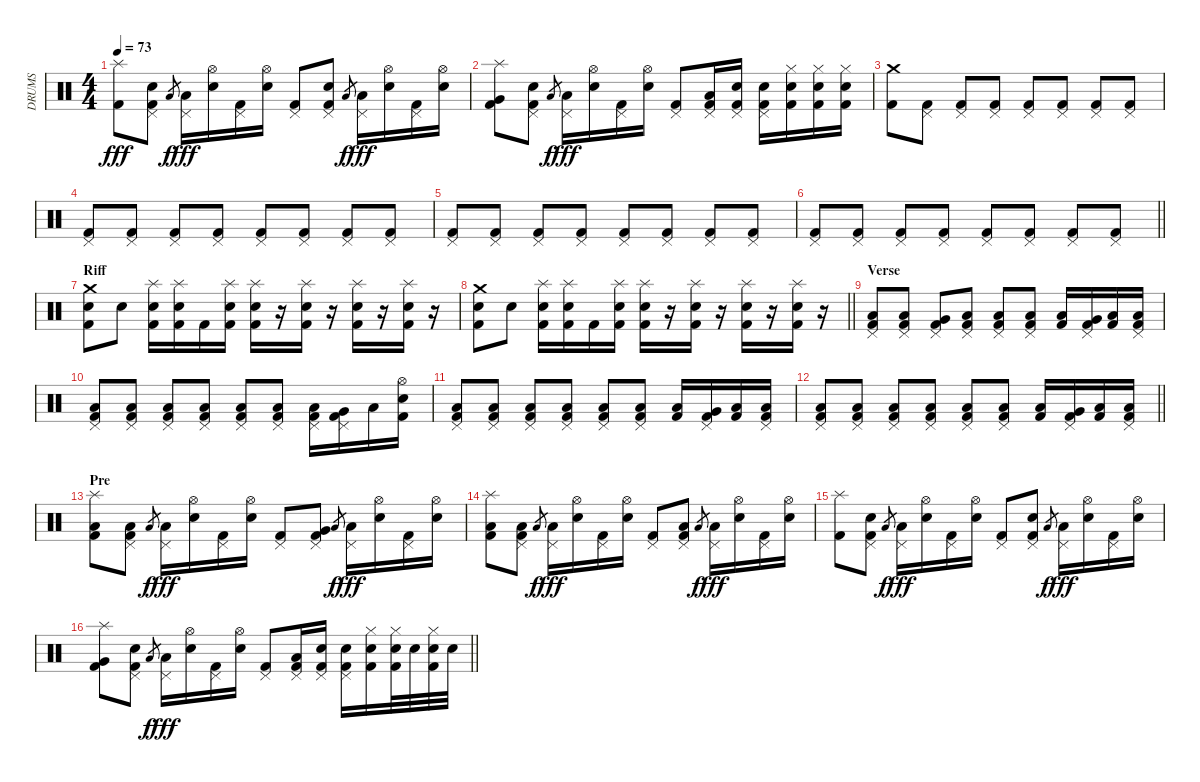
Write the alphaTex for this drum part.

\track ("DRUMS" "DRUMS") {instrument percussion}
\staff {score}
\articulation defaults
\ts (4 4)
\tempo 73
\clef neutral
\ks c
("Splash (hit)" "Kick (hit) 2").8{dy fff} ("Pedal Hi-Hat (hit)" "Electric Snare (hit)" "Kick (hit) 2").8 "Low Tom (hit)".8{gr dy f} ("Pedal Hi-Hat (hit)" "Low Tom (hit)").16{dy fff} ("Hi-Hat (open)" "Electric Snare (hit)").16 ("Pedal Hi-Hat (hit)" "Kick (hit) 2").16 ("Hi-Hat (open)" "Electric Snare (hit)").16 ("Pedal Hi-Hat (hit)" "Kick (hit) 2").8 ("Pedal Hi-Hat (hit)" "Electric Snare (hit)" "Kick (hit) 2").8 "Low Tom (hit)".8{gr dy f} ("Pedal Hi-Hat (hit)" "Low Tom (hit)").16{dy fff} ("Hi-Hat (open)" "Electric Snare (hit)").16 ("Pedal Hi-Hat (hit)" "Kick (hit) 2").16 ("Hi-Hat (open)" "Electric Snare (hit)").16 |
("Splash (hit)" "Very Low Tom (hit)" "Kick (hit) 2").8 ("Pedal Hi-Hat (hit)" "Electric Snare (hit)" "Kick (hit) 2").8 "Low Tom (hit)".8{gr dy f} ("Pedal Hi-Hat (hit)" "Low Tom (hit)").16{dy fff} ("Hi-Hat (open)" "Electric Snare (hit)").16 ("Pedal Hi-Hat (hit)" "Kick (hit) 2").16 ("Hi-Hat (open)" "Electric Snare (hit)").16 ("Pedal Hi-Hat (hit)" "Kick (hit) 2").8 ("Pedal Hi-Hat (hit)" "Low Floor Tom (hit)" "Kick (hit) 2").16 ("Pedal Hi-Hat (hit)" "Electric Snare (hit)" "Kick (hit) 2").16 ("Pedal Hi-Hat (hit)" "Electric Snare (hit)" "Kick (hit) 2").16 ("Hi-Hat (closed)" "Electric Snare (hit)" "Kick (hit) 2").16 ("Hi-Hat (closed)" "Electric Snare (hit)" "Kick (hit) 2").16 ("Hi-Hat (closed)" "Electric Snare (hit)" "Kick (hit) 2").16 |
("Crash medium (hit)" "Kick (hit) 2").8 ("Pedal Hi-Hat (hit)" "Kick (hit) 2").8 ("Pedal Hi-Hat (hit)" "Kick (hit) 2").8 ("Pedal Hi-Hat (hit)" "Kick (hit) 2").8 ("Pedal Hi-Hat (hit)" "Kick (hit) 2").8 ("Pedal Hi-Hat (hit)" "Kick (hit) 2").8 ("Pedal Hi-Hat (hit)" "Kick (hit) 2").8 ("Pedal Hi-Hat (hit)" "Kick (hit) 2").8 |
("Pedal Hi-Hat (hit)" "Kick (hit) 2").8 ("Pedal Hi-Hat (hit)" "Kick (hit) 2").8 ("Pedal Hi-Hat (hit)" "Kick (hit) 2").8 ("Pedal Hi-Hat (hit)" "Kick (hit) 2").8 ("Pedal Hi-Hat (hit)" "Kick (hit) 2").8 ("Pedal Hi-Hat (hit)" "Kick (hit) 2").8 ("Pedal Hi-Hat (hit)" "Kick (hit) 2").8 ("Pedal Hi-Hat (hit)" "Kick (hit) 2").8 |
("Pedal Hi-Hat (hit)" "Kick (hit) 2").8 ("Pedal Hi-Hat (hit)" "Kick (hit) 2").8 ("Pedal Hi-Hat (hit)" "Kick (hit) 2").8 ("Pedal Hi-Hat (hit)" "Kick (hit) 2").8 ("Pedal Hi-Hat (hit)" "Kick (hit) 2").8 ("Pedal Hi-Hat (hit)" "Kick (hit) 2").8 ("Pedal Hi-Hat (hit)" "Kick (hit) 2").8 ("Pedal Hi-Hat (hit)" "Kick (hit) 2").8 |
\barLineRight lightlight
("Pedal Hi-Hat (hit)" "Kick (hit) 2").8 ("Pedal Hi-Hat (hit)" "Kick (hit) 2").8 ("Pedal Hi-Hat (hit)" "Kick (hit) 2").8 ("Pedal Hi-Hat (hit)" "Kick (hit) 2").8 ("Pedal Hi-Hat (hit)" "Kick (hit) 2").8 ("Pedal Hi-Hat (hit)" "Kick (hit) 2").8 ("Pedal Hi-Hat (hit)" "Kick (hit) 2").8 ("Pedal Hi-Hat (hit)" "Kick (hit) 2").8 |
\section ("" "Riff")
("Crash medium (hit)" "Electric Snare (hit)" "Kick (hit) 2").8 "Electric Snare (hit)".8 ("Splash (hit)" "Electric Snare (hit)" "Kick (hit) 2").16 ("Splash (hit)" "Electric Snare (hit)" "Kick (hit) 2").16 "Kick (hit) 2".16 ("Splash (hit)" "Electric Snare (hit)" "Kick (hit) 2").16 ("Splash (hit)" "Electric Snare (hit)" "Kick (hit) 2").16 r.16 ("Splash (hit)" "Electric Snare (hit)" "Kick (hit) 2").16 r.16 ("Splash (hit)" "Electric Snare (hit)" "Kick (hit) 2").16 r.16 ("Splash (hit)" "Electric Snare (hit)" "Kick (hit) 2").16 r.16 |
\barLineRight lightlight
("Crash medium (hit)" "Electric Snare (hit)" "Kick (hit) 2").8 "Electric Snare (hit)".8 ("Splash (hit)" "Electric Snare (hit)" "Kick (hit) 2").16 ("Splash (hit)" "Electric Snare (hit)" "Kick (hit) 2").16 "Kick (hit) 2".16 ("Splash (hit)" "Electric Snare (hit)" "Kick (hit) 2").16 ("Splash (hit)" "Electric Snare (hit)" "Kick (hit) 2").16 r.16 ("Splash (hit)" "Electric Snare (hit)" "Kick (hit) 2").16 r.16 ("Splash (hit)" "Electric Snare (hit)" "Kick (hit) 2").16 r.16 ("Splash (hit)" "Electric Snare (hit)" "Kick (hit) 2").16 r.16 |
\section ("" "Verse")
("Pedal Hi-Hat (hit)" "Low Floor Tom (hit)" "Kick (hit) 2").8 ("Pedal Hi-Hat (hit)" "Low Floor Tom (hit)" "Kick (hit) 2").8 ("Pedal Hi-Hat (hit)" "Very Low Tom (hit)" "Kick (hit) 2").8 ("Pedal Hi-Hat (hit)" "Low Floor Tom (hit)" "Kick (hit) 2").8 ("Pedal Hi-Hat (hit)" "Low Floor Tom (hit)" "Kick (hit) 2").8 ("Pedal Hi-Hat (hit)" "Low Floor Tom (hit)" "Kick (hit) 2").8 ("Low Floor Tom (hit)" "Kick (hit) 2").16 ("Pedal Hi-Hat (hit)" "Very Low Tom (hit)" "Kick (hit) 2").16 ("Low Tom (hit)" "Kick (hit) 2").16 ("Pedal Hi-Hat (hit)" "Low Floor Tom (hit)" "Kick (hit) 2").16 |
("Pedal Hi-Hat (hit)" "Low Floor Tom (hit)" "Kick (hit) 2").8 ("Pedal Hi-Hat (hit)" "Low Floor Tom (hit)" "Kick (hit) 2").8 ("Pedal Hi-Hat (hit)" "Low Floor Tom (hit)" "Kick (hit) 2").8 ("Pedal Hi-Hat (hit)" "Low Floor Tom (hit)" "Kick (hit) 2").8 ("Pedal Hi-Hat (hit)" "Low Floor Tom (hit)" "Kick (hit) 2").8 ("Pedal Hi-Hat (hit)" "Low Floor Tom (hit)" "Kick (hit) 2").8 ("Pedal Hi-Hat (hit)" "Low Floor Tom (hit)" "Kick (hit) 2").16 ("Pedal Hi-Hat (hit)" "Very Low Tom (hit)" "Kick (hit) 2").16 "Low Tom (hit)".16 ("Hi-Hat (open)" "Electric Snare (hit)" "Kick (hit) 2").16 |
("Pedal Hi-Hat (hit)" "Low Floor Tom (hit)" "Kick (hit) 2").8 ("Pedal Hi-Hat (hit)" "Low Floor Tom (hit)" "Kick (hit) 2").8 ("Pedal Hi-Hat (hit)" "Low Floor Tom (hit)" "Kick (hit) 2").8 ("Pedal Hi-Hat (hit)" "Low Floor Tom (hit)" "Kick (hit) 2").8 ("Pedal Hi-Hat (hit)" "Low Floor Tom (hit)" "Kick (hit) 2").8 ("Pedal Hi-Hat (hit)" "Low Floor Tom (hit)" "Kick (hit) 2").8 ("Low Floor Tom (hit)" "Kick (hit) 2").16 ("Pedal Hi-Hat (hit)" "Very Low Tom (hit)" "Kick (hit) 2").16 ("Low Tom (hit)" "Kick (hit) 2").16 ("Pedal Hi-Hat (hit)" "Low Floor Tom (hit)" "Kick (hit) 2").16 |
\barLineRight lightlight
("Pedal Hi-Hat (hit)" "Low Floor Tom (hit)" "Kick (hit) 2").8 ("Pedal Hi-Hat (hit)" "Low Floor Tom (hit)" "Kick (hit) 2").8 ("Pedal Hi-Hat (hit)" "Low Floor Tom (hit)" "Kick (hit) 2").8 ("Pedal Hi-Hat (hit)" "Low Floor Tom (hit)" "Kick (hit) 2").8 ("Pedal Hi-Hat (hit)" "Low Floor Tom (hit)" "Kick (hit) 2").8 ("Pedal Hi-Hat (hit)" "Low Floor Tom (hit)" "Kick (hit) 2").8 ("Low Floor Tom (hit)" "Kick (hit) 2").16 ("Pedal Hi-Hat (hit)" "Very Low Tom (hit)" "Kick (hit) 2").16 ("Low Tom (hit)" "Kick (hit) 2").16 ("Pedal Hi-Hat (hit)" "Low Floor Tom (hit)" "Kick (hit) 2").16 |
\section ("" "Pre")
("Splash (hit)" "Low Tom (hit)" "Kick (hit) 2").8 ("Pedal Hi-Hat (hit)" "Low Tom (hit)" "Kick (hit) 2").8 "Low Tom (hit)".8{gr dy f} ("Pedal Hi-Hat (hit)" "Low Tom (hit)").16{dy fff} ("Hi-Hat (open)" "Electric Snare (hit)").16 ("Pedal Hi-Hat (hit)" "Kick (hit) 2").16 ("Hi-Hat (open)" "Electric Snare (hit)").16 ("Pedal Hi-Hat (hit)" "Kick (hit) 2").8 ("Pedal Hi-Hat (hit)" "Very Low Tom (hit)" "Kick (hit) 2").8 "Low Tom (hit)".8{gr dy f} ("Pedal Hi-Hat (hit)" "Low Tom (hit)").16{dy fff} ("Hi-Hat (open)" "Electric Snare (hit)").16 ("Pedal Hi-Hat (hit)" "Kick (hit) 2").16 ("Hi-Hat (open)" "Electric Snare (hit)").16 |
("Splash (hit)" "Low Tom (hit)" "Kick (hit) 2").8 ("Pedal Hi-Hat (hit)" "Low Tom (hit)" "Kick (hit) 2").8 "Low Tom (hit)".8{gr dy f} ("Pedal Hi-Hat (hit)" "Low Tom (hit)").16{dy fff} ("Hi-Hat (open)" "Electric Snare (hit)").16 ("Pedal Hi-Hat (hit)" "Kick (hit) 2").16 ("Hi-Hat (open)" "Electric Snare (hit)").16 ("Pedal Hi-Hat (hit)" "Kick (hit) 2").8 ("Pedal Hi-Hat (hit)" "Low Floor Tom (hit)" "Kick (hit) 2").8 "Low Tom (hit)".8{gr dy f} ("Pedal Hi-Hat (hit)" "Low Tom (hit)").16{dy fff} ("Hi-Hat (open)" "Electric Snare (hit)").16 ("Pedal Hi-Hat (hit)" "Kick (hit) 2").16 ("Hi-Hat (open)" "Electric Snare (hit)").16 |
("Splash (hit)" "Kick (hit) 2").8 ("Pedal Hi-Hat (hit)" "Electric Snare (hit)" "Kick (hit) 2").8 "Low Tom (hit)".8{gr dy f} ("Pedal Hi-Hat (hit)" "Low Tom (hit)").16{dy fff} ("Hi-Hat (open)" "Electric Snare (hit)").16 ("Pedal Hi-Hat (hit)" "Kick (hit) 2").16 ("Hi-Hat (open)" "Electric Snare (hit)").16 ("Pedal Hi-Hat (hit)" "Kick (hit) 2").8 ("Pedal Hi-Hat (hit)" "Electric Snare (hit)" "Kick (hit) 2").8 "Low Tom (hit)".8{gr dy f} ("Pedal Hi-Hat (hit)" "Low Tom (hit)").16{dy fff} ("Hi-Hat (open)" "Electric Snare (hit)").16 ("Pedal Hi-Hat (hit)" "Kick (hit) 2").16 ("Hi-Hat (open)" "Electric Snare (hit)").16 |
\barLineRight lightlight
("Splash (hit)" "Very Low Tom (hit)" "Kick (hit) 2").8 ("Pedal Hi-Hat (hit)" "Electric Snare (hit)" "Kick (hit) 2").8 "Low Tom (hit)".8{gr dy f} ("Pedal Hi-Hat (hit)" "Low Tom (hit)").16{dy fff} ("Hi-Hat (open)" "Electric Snare (hit)").16 ("Pedal Hi-Hat (hit)" "Kick (hit) 2").16 ("Hi-Hat (open)" "Electric Snare (hit)").16 ("Pedal Hi-Hat (hit)" "Kick (hit) 2").8 ("Pedal Hi-Hat (hit)" "Low Floor Tom (hit)" "Kick (hit) 2").16 ("Pedal Hi-Hat (hit)" "Electric Snare (hit)" "Kick (hit) 2").16 ("Pedal Hi-Hat (hit)" "Electric Snare (hit)" "Kick (hit) 2").16 ("Hi-Hat (closed)" "Electric Snare (hit)" "Kick (hit) 2").16 ("Hi-Hat (closed)" "Electric Snare (hit)" "Kick (hit) 2").32 "Electric Snare (hit)".32 ("Hi-Hat (closed)" "Electric Snare (hit)" "Kick (hit) 2").32 "Electric Snare (hit)".32
